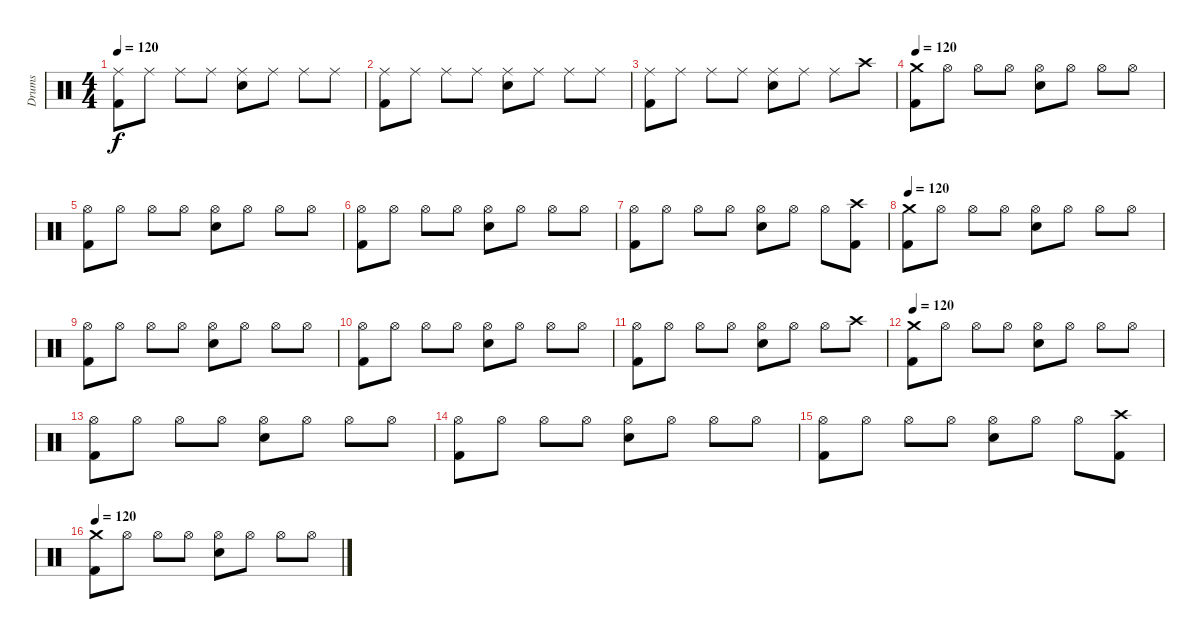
\track ("Drums" "Drums") {instrument percussion}
\staff {score}
\articulation defaults
\ts (4 4)
\tempo 120
\clef neutral
\ks c
("Ride (middle)" "Kick (hit) 2").8{dy f} "Ride (middle)".8 "Ride (middle)".8 "Ride (middle)".8 ("Ride (middle)" "Electric Snare (hit)").8 "Ride (middle)".8 "Ride (middle)".8 "Ride (middle)".8 |
("Ride (middle)" "Kick (hit) 2").8 "Ride (middle)".8 "Ride (middle)".8 "Ride (middle)".8 ("Ride (middle)" "Electric Snare (hit)").8 "Ride (middle)".8 "Ride (middle)".8 "Ride (middle)".8 |
("Ride (middle)" "Kick (hit) 2").8 "Ride (middle)".8 "Ride (middle)".8 "Ride (middle)".8 ("Ride (middle)" "Electric Snare (hit)").8 "Ride (middle)".8 "Ride (middle)".8 "Crash high (hit)".8 |
\tempo 120
("Crash medium (hit)" "Kick (hit) 2").8 "Hi-Hat (open)".8 "Hi-Hat (open)".8 "Hi-Hat (open)".8 ("Hi-Hat (open)" "Electric Snare (hit)").8 "Hi-Hat (open)".8 "Hi-Hat (open)".8 "Hi-Hat (open)".8 |
("Hi-Hat (open)" "Kick (hit) 2").8 "Hi-Hat (open)".8 "Hi-Hat (open)".8 "Hi-Hat (open)".8 ("Hi-Hat (open)" "Electric Snare (hit)").8 "Hi-Hat (open)".8 "Hi-Hat (open)".8 "Hi-Hat (open)".8 |
("Hi-Hat (open)" "Kick (hit) 2").8 "Hi-Hat (open)".8 "Hi-Hat (open)".8 "Hi-Hat (open)".8 ("Hi-Hat (open)" "Electric Snare (hit)").8 "Hi-Hat (open)".8 "Hi-Hat (open)".8 "Hi-Hat (open)".8 |
("Hi-Hat (open)" "Kick (hit) 2").8 "Hi-Hat (open)".8 "Hi-Hat (open)".8 "Hi-Hat (open)".8 ("Hi-Hat (open)" "Electric Snare (hit)").8 "Hi-Hat (open)".8 "Hi-Hat (open)".8 ("Crash high (hit)" "Kick (hit) 2").8 |
\tempo 120
("Crash medium (hit)" "Kick (hit) 2").8 "Hi-Hat (open)".8 "Hi-Hat (open)".8 "Hi-Hat (open)".8 ("Hi-Hat (open)" "Electric Snare (hit)").8 "Hi-Hat (open)".8 "Hi-Hat (open)".8 "Hi-Hat (open)".8 |
("Hi-Hat (open)" "Kick (hit) 2").8 "Hi-Hat (open)".8 "Hi-Hat (open)".8 "Hi-Hat (open)".8 ("Hi-Hat (open)" "Electric Snare (hit)").8 "Hi-Hat (open)".8 "Hi-Hat (open)".8 "Hi-Hat (open)".8 |
("Hi-Hat (open)" "Kick (hit) 2").8 "Hi-Hat (open)".8 "Hi-Hat (open)".8 "Hi-Hat (open)".8 ("Hi-Hat (open)" "Electric Snare (hit)").8 "Hi-Hat (open)".8 "Hi-Hat (open)".8 "Hi-Hat (open)".8 |
("Hi-Hat (open)" "Kick (hit) 2").8 "Hi-Hat (open)".8 "Hi-Hat (open)".8 "Hi-Hat (open)".8 ("Hi-Hat (open)" "Electric Snare (hit)").8 "Hi-Hat (open)".8 "Hi-Hat (open)".8 "Crash high (hit)".8 |
\tempo 120
("Crash medium (hit)" "Kick (hit) 2").8 "Hi-Hat (open)".8 "Hi-Hat (open)".8 "Hi-Hat (open)".8 ("Hi-Hat (open)" "Electric Snare (hit)").8 "Hi-Hat (open)".8 "Hi-Hat (open)".8 "Hi-Hat (open)".8 |
("Hi-Hat (open)" "Kick (hit) 2").8 "Hi-Hat (open)".8 "Hi-Hat (open)".8 "Hi-Hat (open)".8 ("Hi-Hat (open)" "Electric Snare (hit)").8 "Hi-Hat (open)".8 "Hi-Hat (open)".8 "Hi-Hat (open)".8 |
("Hi-Hat (open)" "Kick (hit) 2").8 "Hi-Hat (open)".8 "Hi-Hat (open)".8 "Hi-Hat (open)".8 ("Hi-Hat (open)" "Electric Snare (hit)").8 "Hi-Hat (open)".8 "Hi-Hat (open)".8 "Hi-Hat (open)".8 |
("Hi-Hat (open)" "Kick (hit) 2").8 "Hi-Hat (open)".8 "Hi-Hat (open)".8 "Hi-Hat (open)".8 ("Hi-Hat (open)" "Electric Snare (hit)").8 "Hi-Hat (open)".8 "Hi-Hat (open)".8 ("Crash high (hit)" "Kick (hit) 2").8 |
\tempo 120
("Crash medium (hit)" "Kick (hit) 2").8 "Hi-Hat (open)".8 "Hi-Hat (open)".8 "Hi-Hat (open)".8 ("Hi-Hat (open)" "Electric Snare (hit)").8 "Hi-Hat (open)".8 "Hi-Hat (open)".8 "Hi-Hat (open)".8
